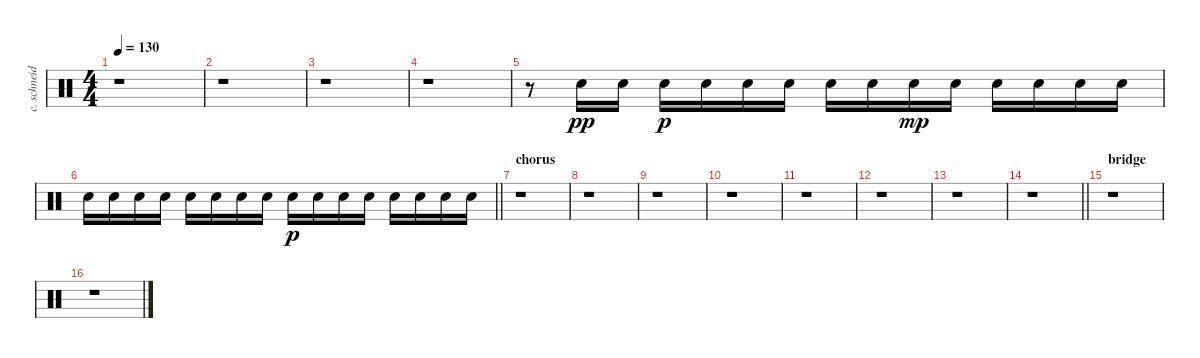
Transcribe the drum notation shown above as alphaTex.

\track ("c. schneider - percussion" "c. schneid") {instrument percussion}
\staff {score}
\articulation defaults
\ts (4 4)
\tempo 130
\clef neutral
\ks c
r.1{dy pp} |
r.1 |
r.1 |
r.1 |
r.8 "Snare (hit) 2".16 "Snare (hit) 2".16 "Snare (hit) 2".16{dy p} "Snare (hit) 2".16 "Snare (hit) 2".16 "Snare (hit) 2".16 "Snare (hit) 2".16 "Snare (hit) 2".16 "Snare (hit) 2".16{dy mp} "Snare (hit) 2".16 "Snare (hit) 2".16 "Snare (hit) 2".16 "Snare (hit) 2".16 "Snare (hit) 2".16 |
\barLineRight lightlight "Snare (hit) 2".16 "Snare (hit) 2".16 "Snare (hit) 2".16 "Snare (hit) 2".16 "Snare (hit) 2".16 "Snare (hit) 2".16 "Snare (hit) 2".16 "Snare (hit) 2".16 "Snare (hit) 2".16{dy p} "Snare (hit) 2".16 "Snare (hit) 2".16 "Snare (hit) 2".16 "Snare (hit) 2".16 "Snare (hit) 2".16 "Snare (hit) 2".16 "Snare (hit) 2".16
|
\section ("" "chorus")
r.1 |
r.1 |
r.1 |
r.1 |
r.1 |
r.1 |
r.1 |
\barLineRight lightlight
r.1 |
\section ("" "bridge")
r.1 |
r.1
